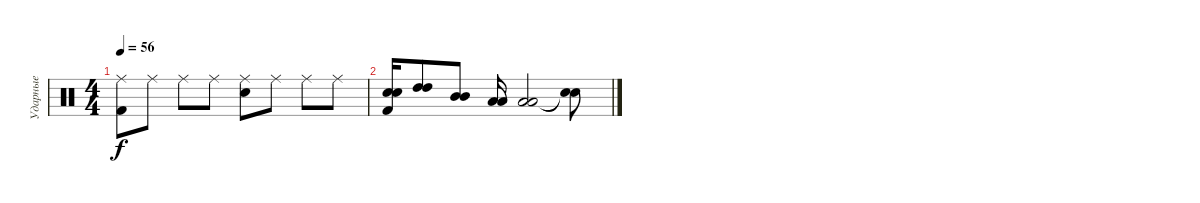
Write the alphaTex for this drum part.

\track ("Ударные" "Ударные") {instrument percussion}
\staff {score}
\articulation defaults
\ts (4 4)
\tempo 56
\clef neutral
\ks c
("Ride (middle)" "Kick (hit) 2").8{dy f} "Ride (middle)".8 "Ride (middle)".8 "Ride (middle)".8 ("Ride (middle)" "Snare (hit) 2").8 "Ride (middle)".8 "Ride (middle)".8 "Ride (middle)".8 |
("Snare (hit) 2" "Snare (hit) 2" "Kick (hit) 2").16 ("High Tom (hit)" "High Tom (hit)").8 ("Mid Tom (hit)" "Mid Tom (hit)").8 ("Low Tom (hit)" "Low Tom (hit)").16 ("Low Tom (hit)" "Low Tom (hit)").2 ("Snare (hit)"{t} "Snare (hit)"{t}).8
